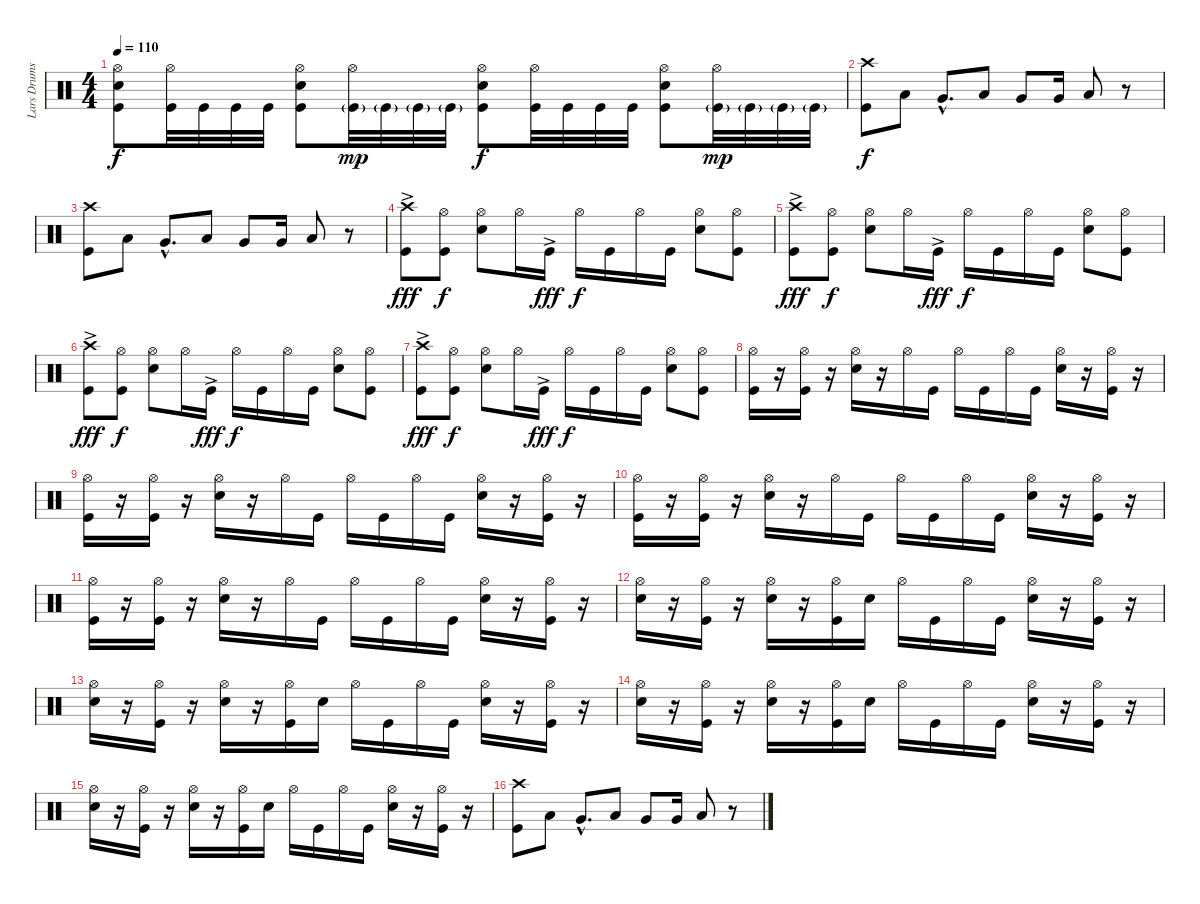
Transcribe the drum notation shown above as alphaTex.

\track ("Lars Drums" "Lars Drums") {instrument percussion}
\staff {score}
\articulation defaults
\ts (4 4)
\tempo 110
\clef neutral
\ks c
("Hi-Hat (open)" "Electric Snare (hit)" "Kick (hit)").8{dy f} ("Hi-Hat (open)" "Kick (hit)").32 "Kick (hit)".32 "Kick (hit)".32 "Kick (hit)".32 ("Hi-Hat (open)" "Electric Snare (hit)" "Kick (hit)").8 ("Hi-Hat (open)" "Kick (hit)"{g}).32{dy mp} "Kick (hit)"{g}.32 "Kick (hit)"{g}.32 "Kick (hit)"{g}.32 ("Hi-Hat (open)" "Electric Snare (hit)" "Kick (hit)").8{dy f} ("Hi-Hat (open)" "Kick (hit)").32 "Kick (hit)".32 "Kick (hit)".32 "Kick (hit)".32 ("Hi-Hat (open)" "Electric Snare (hit)" "Kick (hit)").8 ("Hi-Hat (open)" "Kick (hit)"{g}).32{dy mp} "Kick (hit)"{g}.32 "Kick (hit)"{g}.32 "Kick (hit)"{g}.32 |
("Crash high (hit)" "Kick (hit)").8{dy f} "Low Floor Tom (hit)".8 "Very Low Tom (hit)"{hac}.8{d} "Low Floor Tom (hit)".8 "Very Low Tom (hit)".8 "Very Low Tom (hit)".16 "Low Floor Tom (hit)".8 r.8 |
("Crash high (hit)" "Kick (hit)").8 "Low Floor Tom (hit)".8 "Very Low Tom (hit)"{hac}.8{d} "Low Floor Tom (hit)".8 "Very Low Tom (hit)".8 "Very Low Tom (hit)".16 "Low Floor Tom (hit)".8 r.8 |
("Crash high (hit)" "Kick (hit)"{ac}).8{dy fff} ("Hi-Hat (open)" "Kick (hit)").8{dy f} ("Hi-Hat (open)" "Electric Snare (hit)").8 "Hi-Hat (open)".16 "Kick (hit)"{ac}.16{dy fff} "Hi-Hat (open)".16{dy f} "Kick (hit)".16 "Hi-Hat (open)".16 "Kick (hit)".16 ("Hi-Hat (open)" "Electric Snare (hit)").8 ("Hi-Hat (open)" "Kick (hit)").8 |
("Crash high (hit)" "Kick (hit)"{ac}).8{dy fff} ("Hi-Hat (open)" "Kick (hit)").8{dy f} ("Hi-Hat (open)" "Electric Snare (hit)").8 "Hi-Hat (open)".16 "Kick (hit)"{ac}.16{dy fff} "Hi-Hat (open)".16{dy f} "Kick (hit)".16 "Hi-Hat (open)".16 "Kick (hit)".16 ("Hi-Hat (open)" "Electric Snare (hit)").8 ("Hi-Hat (open)" "Kick (hit)").8 |
("Crash high (hit)" "Kick (hit)"{ac}).8{dy fff} ("Hi-Hat (open)" "Kick (hit)").8{dy f} ("Hi-Hat (open)" "Electric Snare (hit)").8 "Hi-Hat (open)".16 "Kick (hit)"{ac}.16{dy fff} "Hi-Hat (open)".16{dy f} "Kick (hit)".16 "Hi-Hat (open)".16 "Kick (hit)".16 ("Hi-Hat (open)" "Electric Snare (hit)").8 ("Hi-Hat (open)" "Kick (hit)").8 |
("Crash high (hit)" "Kick (hit)"{ac}).8{dy fff} ("Hi-Hat (open)" "Kick (hit)").8{dy f} ("Hi-Hat (open)" "Electric Snare (hit)").8 "Hi-Hat (open)".16 "Kick (hit)"{ac}.16{dy fff} "Hi-Hat (open)".16{dy f} "Kick (hit)".16 "Hi-Hat (open)".16 "Kick (hit)".16 ("Hi-Hat (open)" "Electric Snare (hit)").8 ("Hi-Hat (open)" "Kick (hit)").8 |
("Hi-Hat (open)" "Kick (hit)").16 r.16 ("Hi-Hat (open)" "Kick (hit)").16 r.16 ("Hi-Hat (open)" "Electric Snare (hit)").16 r.16 "Hi-Hat (open)".16 "Kick (hit)".16 "Hi-Hat (open)".16 "Kick (hit)".16 "Hi-Hat (open)".16 "Kick (hit)".16 ("Hi-Hat (open)" "Electric Snare (hit)").16 r.16 ("Hi-Hat (open)" "Kick (hit)").16 r.16 |
("Hi-Hat (open)" "Kick (hit)").16 r.16 ("Hi-Hat (open)" "Kick (hit)").16 r.16 ("Hi-Hat (open)" "Electric Snare (hit)").16 r.16 "Hi-Hat (open)".16 "Kick (hit)".16 "Hi-Hat (open)".16 "Kick (hit)".16 "Hi-Hat (open)".16 "Kick (hit)".16 ("Hi-Hat (open)" "Electric Snare (hit)").16 r.16 ("Hi-Hat (open)" "Kick (hit)").16 r.16 |
("Hi-Hat (open)" "Kick (hit)").16 r.16 ("Hi-Hat (open)" "Kick (hit)").16 r.16 ("Hi-Hat (open)" "Electric Snare (hit)").16 r.16 "Hi-Hat (open)".16 "Kick (hit)".16 "Hi-Hat (open)".16 "Kick (hit)".16 "Hi-Hat (open)".16 "Kick (hit)".16 ("Hi-Hat (open)" "Electric Snare (hit)").16 r.16 ("Hi-Hat (open)" "Kick (hit)").16 r.16 |
("Hi-Hat (open)" "Kick (hit)").16 r.16 ("Hi-Hat (open)" "Kick (hit)").16 r.16 ("Hi-Hat (open)" "Electric Snare (hit)").16 r.16 "Hi-Hat (open)".16 "Kick (hit)".16 "Hi-Hat (open)".16 "Kick (hit)".16 "Hi-Hat (open)".16 "Kick (hit)".16 ("Hi-Hat (open)" "Electric Snare (hit)").16 r.16 ("Hi-Hat (open)" "Kick (hit)").16 r.16 |
("Hi-Hat (open)" "Electric Snare (hit)").16 r.16 ("Hi-Hat (open)" "Kick (hit)").16 r.16 ("Hi-Hat (open)" "Electric Snare (hit)").16 r.16 ("Hi-Hat (open)" "Kick (hit)").16 "Electric Snare (hit)".16 "Hi-Hat (open)".16 "Kick (hit)".16 "Hi-Hat (open)".16 "Kick (hit)".16 ("Hi-Hat (open)" "Electric Snare (hit)").16 r.16 ("Hi-Hat (open)" "Kick (hit)").16 r.16 |
("Hi-Hat (open)" "Electric Snare (hit)").16 r.16 ("Hi-Hat (open)" "Kick (hit)").16 r.16 ("Hi-Hat (open)" "Electric Snare (hit)").16 r.16 ("Hi-Hat (open)" "Kick (hit)").16 "Electric Snare (hit)".16 "Hi-Hat (open)".16 "Kick (hit)".16 "Hi-Hat (open)".16 "Kick (hit)".16 ("Hi-Hat (open)" "Electric Snare (hit)").16 r.16 ("Hi-Hat (open)" "Kick (hit)").16 r.16 |
("Hi-Hat (open)" "Electric Snare (hit)").16 r.16 ("Hi-Hat (open)" "Kick (hit)").16 r.16 ("Hi-Hat (open)" "Electric Snare (hit)").16 r.16 ("Hi-Hat (open)" "Kick (hit)").16 "Electric Snare (hit)".16 "Hi-Hat (open)".16 "Kick (hit)".16 "Hi-Hat (open)".16 "Kick (hit)".16 ("Hi-Hat (open)" "Electric Snare (hit)").16 r.16 ("Hi-Hat (open)" "Kick (hit)").16 r.16 |
("Hi-Hat (open)" "Electric Snare (hit)").16 r.16 ("Hi-Hat (open)" "Kick (hit)").16 r.16 ("Hi-Hat (open)" "Electric Snare (hit)").16 r.16 ("Hi-Hat (open)" "Kick (hit)").16 "Electric Snare (hit)".16 "Hi-Hat (open)".16 "Kick (hit)".16 "Hi-Hat (open)".16 "Kick (hit)".16 ("Hi-Hat (open)" "Electric Snare (hit)").16 r.16 ("Hi-Hat (open)" "Kick (hit)").16 r.16 |
("Crash high (hit)" "Kick (hit)").8 "Low Floor Tom (hit)".8 "Very Low Tom (hit)"{hac}.8{d} "Low Floor Tom (hit)".8 "Very Low Tom (hit)".8 "Very Low Tom (hit)".16 "Low Floor Tom (hit)".8 r.8
